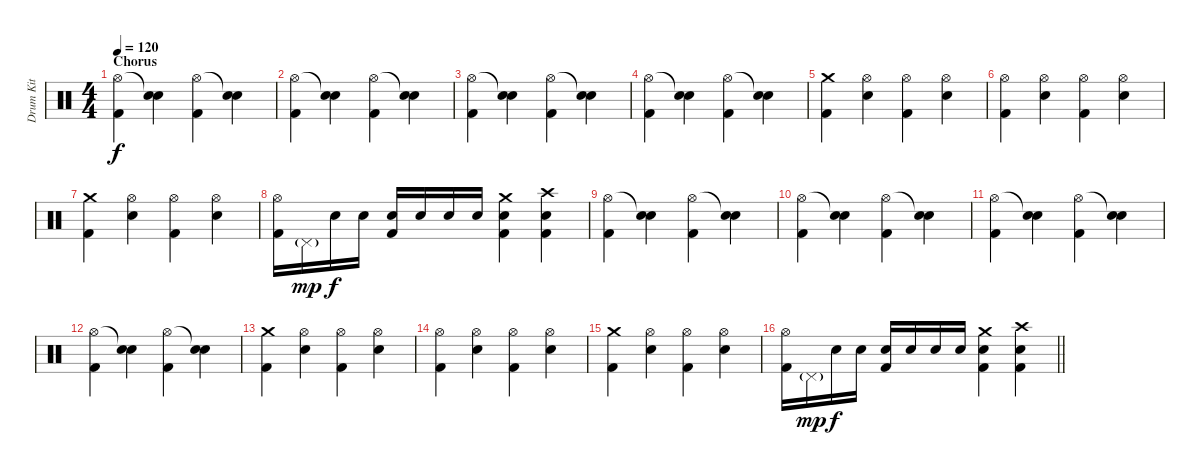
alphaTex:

\track ("Drum Kit" "Drum Kit") {instrument percussion}
\staff {score}
\articulation defaults
\ts (4 4)
\section ("" "Chorus")
\tempo 120
\clef neutral
\ks c
("Hi-Hat (open)" "Kick (hit) 2").4{dy f} ("Snare (hit)"{t} "Electric Snare (hit)").4 ("Hi-Hat (open)" "Kick (hit) 2").4 ("Snare (hit)"{t} "Electric Snare (hit)").4 |
("Hi-Hat (open)" "Kick (hit) 2").4 ("Snare (hit)"{t} "Electric Snare (hit)").4 ("Hi-Hat (open)" "Kick (hit) 2").4 ("Snare (hit)"{t} "Electric Snare (hit)").4 |
("Hi-Hat (open)" "Kick (hit) 2").4 ("Snare (hit)"{t} "Electric Snare (hit)").4 ("Hi-Hat (open)" "Kick (hit) 2").4 ("Snare (hit)"{t} "Electric Snare (hit)").4 |
("Hi-Hat (open)" "Kick (hit) 2").4 ("Snare (hit)"{t} "Electric Snare (hit)").4 ("Hi-Hat (open)" "Kick (hit) 2").4 ("Snare (hit)"{t} "Electric Snare (hit)").4 |
("Crash medium (hit)" "Kick (hit) 2").4 ("Hi-Hat (open)" "Electric Snare (hit)").4 ("Hi-Hat (open)" "Kick (hit) 2").4 ("Hi-Hat (open)" "Electric Snare (hit)").4 |
("Hi-Hat (open)" "Kick (hit) 2").4 ("Hi-Hat (open)" "Electric Snare (hit)").4 ("Hi-Hat (open)" "Kick (hit) 2").4 ("Hi-Hat (open)" "Electric Snare (hit)").4 |
("Crash medium (hit)" "Kick (hit) 2").4 ("Hi-Hat (open)" "Electric Snare (hit)").4 ("Hi-Hat (open)" "Kick (hit) 2").4 ("Hi-Hat (open)" "Electric Snare (hit)").4 |
("Hi-Hat (open)" "Kick (hit) 2").16 "Pedal Hi-Hat (hit)"{g}.16{dy mp} "Electric Snare (hit)".16{dy f} "Electric Snare (hit)".16 ("Electric Snare (hit)" "Kick (hit) 2").16 "Electric Snare (hit)".16 "Electric Snare (hit)".16 "Electric Snare (hit)".16 ("Crash medium (hit)" "Electric Snare (hit)" "Kick (hit) 2").4 ("Crash high (hit)" "Electric Snare (hit)" "Kick (hit) 2").4 |
("Hi-Hat (open)" "Kick (hit) 2").4 ("Snare (hit)"{t} "Electric Snare (hit)").4 ("Hi-Hat (open)" "Kick (hit) 2").4 ("Snare (hit)"{t} "Electric Snare (hit)").4 |
("Hi-Hat (open)" "Kick (hit) 2").4 ("Snare (hit)"{t} "Electric Snare (hit)").4 ("Hi-Hat (open)" "Kick (hit) 2").4 ("Snare (hit)"{t} "Electric Snare (hit)").4 |
("Hi-Hat (open)" "Kick (hit) 2").4 ("Snare (hit)"{t} "Electric Snare (hit)").4 ("Hi-Hat (open)" "Kick (hit) 2").4 ("Snare (hit)"{t} "Electric Snare (hit)").4 |
("Hi-Hat (open)" "Kick (hit) 2").4 ("Snare (hit)"{t} "Electric Snare (hit)").4 ("Hi-Hat (open)" "Kick (hit) 2").4 ("Snare (hit)"{t} "Electric Snare (hit)").4 |
("Crash medium (hit)" "Kick (hit) 2").4 ("Hi-Hat (open)" "Electric Snare (hit)").4 ("Hi-Hat (open)" "Kick (hit) 2").4 ("Hi-Hat (open)" "Electric Snare (hit)").4 |
("Hi-Hat (open)" "Kick (hit) 2").4 ("Hi-Hat (open)" "Electric Snare (hit)").4 ("Hi-Hat (open)" "Kick (hit) 2").4 ("Hi-Hat (open)" "Electric Snare (hit)").4 |
("Crash medium (hit)" "Kick (hit) 2").4 ("Hi-Hat (open)" "Electric Snare (hit)").4 ("Hi-Hat (open)" "Kick (hit) 2").4 ("Hi-Hat (open)" "Electric Snare (hit)").4 |
\barLineRight lightlight
("Hi-Hat (open)" "Kick (hit) 2").16 "Pedal Hi-Hat (hit)"{g}.16{dy mp} "Electric Snare (hit)".16{dy f} "Electric Snare (hit)".16 ("Electric Snare (hit)" "Kick (hit) 2").16 "Electric Snare (hit)".16 "Electric Snare (hit)".16 "Electric Snare (hit)".16 ("Crash medium (hit)" "Electric Snare (hit)" "Kick (hit) 2").4 ("Crash high (hit)" "Electric Snare (hit)" "Kick (hit) 2").4
